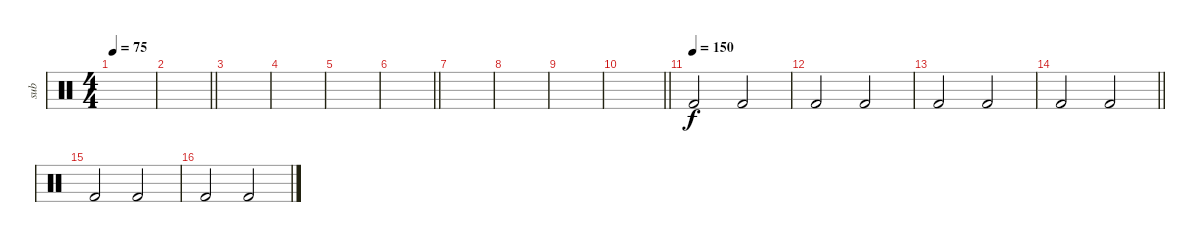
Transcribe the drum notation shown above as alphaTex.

\track ("sub" "sub") {instrument percussion}
\staff {score}
\articulation defaults
\ts (4 4)
\section ("" "")
\tempo 75
\clef neutral
\ks c
|
\barLineRight lightlight
|
\section ("" "")
|
|
|
\barLineRight lightlight
|
\section ("" "")
|
|
|
\barLineRight lightlight
|
\section ("" "")
\tempo (150)
"Kick (hit) 2".2 "Kick (hit) 2".2 |
"Kick (hit) 2".2 "Kick (hit) 2".2 |
"Kick (hit) 2".2 "Kick (hit) 2".2 |
\barLineRight lightlight "Kick (hit) 2".2 "Kick (hit) 2".2
|
"Kick (hit) 2".2 "Kick (hit) 2".2 |
"Kick (hit) 2".2 "Kick (hit) 2".2
